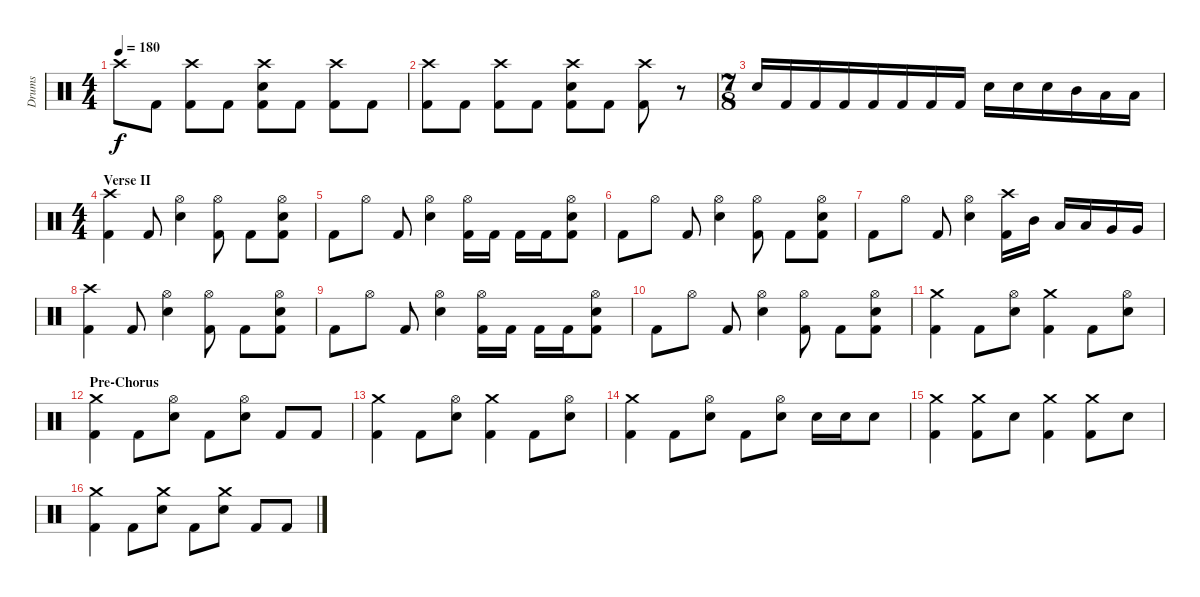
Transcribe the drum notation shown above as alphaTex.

\track ("Drums" "Drums") {instrument percussion}
\staff {score}
\articulation defaults
\ts (4 4)
\tempo 180
\clef neutral
\ks c "Crash high (hit)".8{dy f} "Kick (hit) 2".8
("Crash high (hit)" "Kick (hit) 2").8 "Kick (hit) 2".8 ("Crash high (hit)" "Electric Snare (hit)" "Kick (hit) 2").8 "Kick (hit) 2".8 ("Crash high (hit)" "Kick (hit) 2").8 "Kick (hit) 2".8 |
("Crash high (hit)" "Kick (hit) 2").8 "Kick (hit) 2".8 ("Crash high (hit)" "Kick (hit) 2").8 "Kick (hit) 2".8 ("Crash high (hit)" "Electric Snare (hit)" "Kick (hit) 2").8 "Kick (hit) 2".8 ("Crash high (hit)" "Kick (hit) 2").8 r.8 |
\ts (7 8)
"Electric Snare (hit)".16 "Kick (hit) 2".16 "Kick (hit) 2".16 "Kick (hit) 2".16 "Kick (hit) 2".16 "Kick (hit) 2".16 "Kick (hit) 2".16 "Kick (hit) 2".16 "Electric Snare (hit)".16 "Electric Snare (hit)".16 "Electric Snare (hit)".16 "Mid Tom (hit)".16 "Low Tom (hit)".16 "Low Tom (hit)".16 |
\ts (4 4)
\section ("" "Verse II")
("Crash high (hit)" "Kick (hit) 2").4 "Kick (hit) 2".8 ("Hi-Hat (open)" "Electric Snare (hit)").4 ("Hi-Hat (open)" "Kick (hit) 2").8 "Kick (hit) 2".8 ("Hi-Hat (open)" "Electric Snare (hit)" "Kick (hit) 2").8 |
"Kick (hit) 2".8 "Hi-Hat (open)".8 "Kick (hit) 2".8 ("Hi-Hat (open)" "Electric Snare (hit)").4 ("Hi-Hat (open)" "Kick (hit) 2").16 "Kick (hit) 2".16 "Kick (hit) 2".16 "Kick (hit) 2".16 ("Hi-Hat (open)" "Electric Snare (hit)" "Kick (hit) 2").8 |
"Kick (hit) 2".8 "Hi-Hat (open)".8 "Kick (hit) 2".8 ("Hi-Hat (open)" "Electric Snare (hit)").4 ("Hi-Hat (open)" "Kick (hit) 2").8 "Kick (hit) 2".8 ("Hi-Hat (open)" "Electric Snare (hit)" "Kick (hit) 2").8 |
"Kick (hit) 2".8 "Hi-Hat (open)".8 "Kick (hit) 2".8 ("Hi-Hat (open)" "Electric Snare (hit)").4 ("Crash high (hit)" "Kick (hit) 2").16 "Mid Tom (hit)".16 "Low Tom (hit)".16 "Low Tom (hit)".16 "Very Low Tom (hit)".16 "Very Low Tom (hit)".16 |
("Crash high (hit)" "Kick (hit) 2").4 "Kick (hit) 2".8 ("Hi-Hat (open)" "Electric Snare (hit)").4 ("Hi-Hat (open)" "Kick (hit) 2").8 "Kick (hit) 2".8 ("Hi-Hat (open)" "Electric Snare (hit)" "Kick (hit) 2").8 |
"Kick (hit) 2".8 "Hi-Hat (open)".8 "Kick (hit) 2".8 ("Hi-Hat (open)" "Electric Snare (hit)").4 ("Hi-Hat (open)" "Kick (hit) 2").16 "Kick (hit) 2".16 "Kick (hit) 2".16 "Kick (hit) 2".16 ("Hi-Hat (open)" "Electric Snare (hit)" "Kick (hit) 2").8 |
"Kick (hit) 2".8 "Hi-Hat (open)".8 "Kick (hit) 2".8 ("Hi-Hat (open)" "Electric Snare (hit)").4 ("Hi-Hat (open)" "Kick (hit) 2").8 "Kick (hit) 2".8 ("Hi-Hat (open)" "Electric Snare (hit)" "Kick (hit) 2").8 |
("Crash medium (hit)" "Kick (hit) 2").4 "Kick (hit) 2".8 ("Hi-Hat (open)" "Electric Snare (hit)").8 ("Crash medium (hit)" "Kick (hit) 2").4 "Kick (hit) 2".8 ("Hi-Hat (open)" "Electric Snare (hit)").8 |
\section ("" "Pre-Chorus")
("Crash medium (hit)" "Kick (hit) 2").4 "Kick (hit) 2".8 ("Hi-Hat (open)" "Electric Snare (hit)").8 "Kick (hit) 2".8 ("Hi-Hat (open)" "Electric Snare (hit)").8 "Kick (hit) 2".8 "Kick (hit) 2".8 |
("Crash medium (hit)" "Kick (hit) 2").4 "Kick (hit) 2".8 ("Hi-Hat (open)" "Electric Snare (hit)").8 ("Crash medium (hit)" "Kick (hit) 2").4 "Kick (hit) 2".8 ("Hi-Hat (open)" "Electric Snare (hit)").8 |
("Crash medium (hit)" "Kick (hit) 2").4 "Kick (hit) 2".8 ("Hi-Hat (open)" "Electric Snare (hit)").8 "Kick (hit) 2".8 ("Hi-Hat (open)" "Electric Snare (hit)").8 "Electric Snare (hit)".16 "Electric Snare (hit)".16 "Electric Snare (hit)".8 |
("Crash medium (hit)" "Kick (hit) 2").4 ("Crash medium (hit)" "Kick (hit) 2").8 "Electric Snare (hit)".8 ("Crash medium (hit)" "Kick (hit) 2").4 ("Crash medium (hit)" "Kick (hit) 2").8 "Electric Snare (hit)".8 |
("Crash medium (hit)" "Kick (hit) 2").4 "Kick (hit) 2".8 ("Crash medium (hit)" "Electric Snare (hit)").8 "Kick (hit) 2".8 ("Crash medium (hit)" "Electric Snare (hit)").8 "Kick (hit) 2".8 "Kick (hit) 2".8
